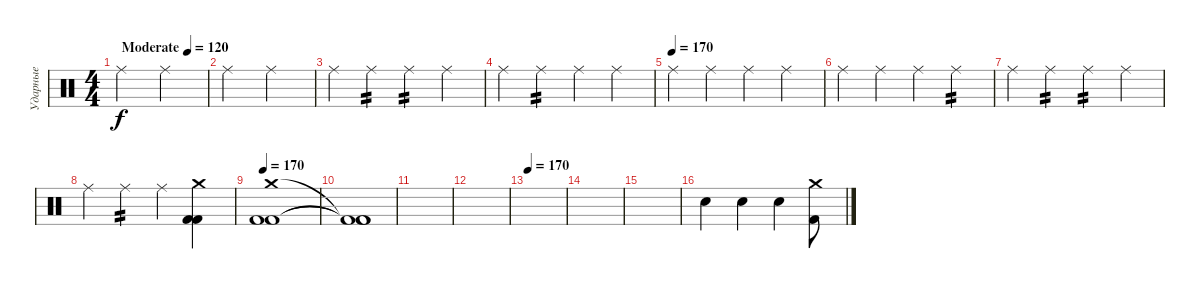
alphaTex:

\track ("Ударные" "Ударные") {instrument percussion}
\staff {score}
\articulation defaults
\ts (4 4)
\tempo (120 "Moderate")
\tempo 170
\tempo (120 "Moderate")
\clef neutral
\ks c "Ride (middle)".2{dy f} "Ride (middle)".2
|
"Ride (middle)".2 "Ride (middle)".2 |
"Ride (middle)".4 "Ride (middle)".4{tp 2} "Ride (middle)".4{tp 2} "Ride (middle)".4 |
"Ride (middle)".4 "Ride (middle)".4{tp 2} "Ride (middle)".4 "Ride (middle)".4 |
\tempo (170)
"Ride (middle)".4 "Ride (middle)".4 "Ride (middle)".4 "Ride (middle)".4 |
"Ride (middle)".4 "Ride (middle)".4 "Ride (middle)".4 "Ride (middle)".4{tp 2} |
"Ride (middle)".4 "Ride (middle)".4{tp 2} "Ride (middle)".4{tp 2} "Ride (middle)".4 |
"Ride (middle)".4 "Ride (middle)".4{tp 2} "Ride (middle)".4 ("Crash medium (hit)" "Kick (hit) 2" "Kick (hit) 2").4 |
\tempo 170
("Crash medium (hit)" "Kick (hit) 2" "Kick (hit) 2").1 |
("Kick (hit) 2"{t} "Kick (hit) 2"{t} "Kick (hit) 2"{t}).1 |
|
|
\tempo 170
|
|
|
"Snare (hit)".4 "Snare (hit)".4 "Snare (hit)".4 ("Crash medium (hit)" "Kick (hit) 2").8
